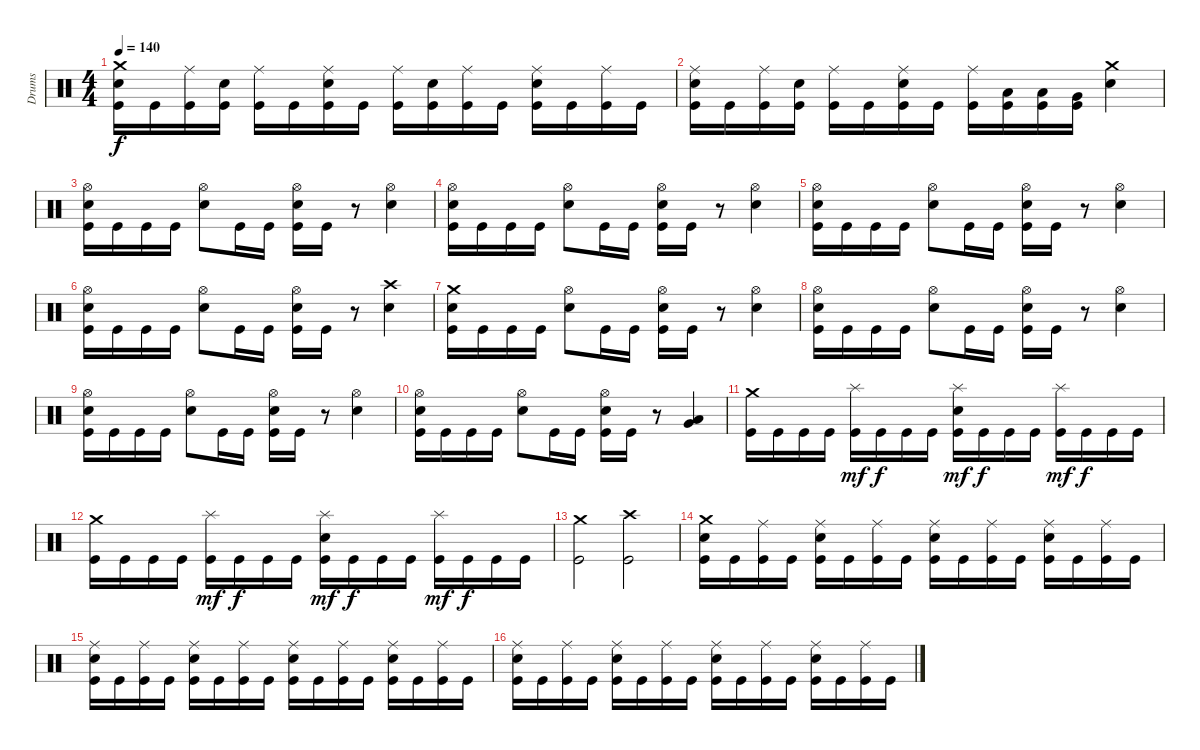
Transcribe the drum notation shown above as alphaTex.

\track ("Drums" "Drums") {instrument percussion}
\staff {score}
\articulation defaults
\ts (4 4)
\tempo 140
\clef neutral
\ks c
("Kick (hit)" "Electric Snare (hit)" "Crash medium (hit)").16{dy f} "Kick (hit)".16 ("Kick (hit)" "Ride (middle)").16 ("Kick (hit)" "Electric Snare (hit)").16 ("Kick (hit)" "Ride (middle)").16 "Kick (hit)".16 ("Kick (hit)" "Electric Snare (hit)" "Ride (middle)").16 "Kick (hit)".16 ("Kick (hit)" "Ride (middle)").16 ("Kick (hit)" "Electric Snare (hit)").16 ("Kick (hit)" "Ride (middle)").16 "Kick (hit)".16 ("Kick (hit)" "Electric Snare (hit)" "Ride (middle)").16 "Kick (hit)".16 ("Kick (hit)" "Ride (middle)").16 "Kick (hit)".16 |
("Kick (hit)" "Electric Snare (hit)" "Ride (middle)").16 "Kick (hit)".16 ("Kick (hit)" "Ride (middle)").16 ("Kick (hit)" "Electric Snare (hit)").16 ("Kick (hit)" "Ride (middle)").16 "Kick (hit)".16 ("Kick (hit)" "Electric Snare (hit)" "Ride (middle)").16 "Kick (hit)".16 ("Kick (hit)" "Ride (middle)").16 ("Kick (hit)" "Low Tom (hit)").16 ("Kick (hit)" "Low Tom (hit)").16 ("Kick (hit)" "Very Low Tom (hit)").16 ("Electric Snare (hit)" "Crash medium (hit)").4 |
("Kick (hit)" "Electric Snare (hit)" "Hi-Hat (open)").16 "Kick (hit)".16 "Kick (hit)".16 "Kick (hit)".16 ("Electric Snare (hit)" "Hi-Hat (open)").8 "Kick (hit)".16 "Kick (hit)".16 ("Kick (hit)" "Electric Snare (hit)" "Hi-Hat (open)").16 "Kick (hit)".16 r.8 ("Electric Snare (hit)" "Hi-Hat (open)").4 |
("Kick (hit)" "Electric Snare (hit)" "Hi-Hat (open)").16 "Kick (hit)".16 "Kick (hit)".16 "Kick (hit)".16 ("Electric Snare (hit)" "Hi-Hat (open)").8 "Kick (hit)".16 "Kick (hit)".16 ("Kick (hit)" "Electric Snare (hit)" "Hi-Hat (open)").16 "Kick (hit)".16 r.8 ("Electric Snare (hit)" "Hi-Hat (open)").4 |
("Kick (hit)" "Electric Snare (hit)" "Hi-Hat (open)").16 "Kick (hit)".16 "Kick (hit)".16 "Kick (hit)".16 ("Electric Snare (hit)" "Hi-Hat (open)").8 "Kick (hit)".16 "Kick (hit)".16 ("Kick (hit)" "Electric Snare (hit)" "Hi-Hat (open)").16 "Kick (hit)".16 r.8 ("Electric Snare (hit)" "Hi-Hat (open)").4 |
("Kick (hit)" "Electric Snare (hit)" "Hi-Hat (open)").16 "Kick (hit)".16 "Kick (hit)".16 "Kick (hit)".16 ("Electric Snare (hit)" "Hi-Hat (open)").8 "Kick (hit)".16 "Kick (hit)".16 ("Kick (hit)" "Electric Snare (hit)" "Hi-Hat (open)").16 "Kick (hit)".16 r.8 ("Electric Snare (hit)" "Crash high (hit)").4 |
("Kick (hit)" "Electric Snare (hit)" "Crash medium (hit)").16 "Kick (hit)".16 "Kick (hit)".16 "Kick (hit)".16 ("Electric Snare (hit)" "Hi-Hat (open)").8 "Kick (hit)".16 "Kick (hit)".16 ("Kick (hit)" "Electric Snare (hit)" "Hi-Hat (open)").16 "Kick (hit)".16 r.8 ("Electric Snare (hit)" "Hi-Hat (open)").4 |
("Kick (hit)" "Electric Snare (hit)" "Hi-Hat (open)").16 "Kick (hit)".16 "Kick (hit)".16 "Kick (hit)".16 ("Electric Snare (hit)" "Hi-Hat (open)").8 "Kick (hit)".16 "Kick (hit)".16 ("Kick (hit)" "Electric Snare (hit)" "Hi-Hat (open)").16 "Kick (hit)".16 r.8 ("Electric Snare (hit)" "Hi-Hat (open)").4 |
("Kick (hit)" "Electric Snare (hit)" "Hi-Hat (open)").16 "Kick (hit)".16 "Kick (hit)".16 "Kick (hit)".16 ("Electric Snare (hit)" "Hi-Hat (open)").8 "Kick (hit)".16 "Kick (hit)".16 ("Kick (hit)" "Electric Snare (hit)" "Hi-Hat (open)").16 "Kick (hit)".16 r.8 ("Electric Snare (hit)" "Hi-Hat (open)").4 |
("Kick (hit)" "Electric Snare (hit)" "Hi-Hat (open)").16 "Kick (hit)".16 "Kick (hit)".16 "Kick (hit)".16 ("Electric Snare (hit)" "Hi-Hat (open)").8 "Kick (hit)".16 "Kick (hit)".16 ("Kick (hit)" "Electric Snare (hit)" "Hi-Hat (open)").16 "Kick (hit)".16 r.8 ("Very Low Tom (hit)" "Low Floor Tom (hit)").4 |
("Kick (hit)" "Crash medium (hit)").16 "Kick (hit)".16 "Kick (hit)".16 "Kick (hit)".16 ("Kick (hit)" "Splash (hit)").16{dy mf} "Kick (hit)".16{dy f} "Kick (hit)".16 "Kick (hit)".16 ("Kick (hit)" "Electric Snare (hit)" "Splash (hit)").16{dy mf} "Kick (hit)".16{dy f} "Kick (hit)".16 "Kick (hit)".16 ("Kick (hit)" "Splash (hit)").16{dy mf} "Kick (hit)".16{dy f} "Kick (hit)".16 "Kick (hit)".16 |
("Kick (hit)" "Crash medium (hit)").16 "Kick (hit)".16 "Kick (hit)".16 "Kick (hit)".16 ("Kick (hit)" "Splash (hit)").16{dy mf} "Kick (hit)".16{dy f} "Kick (hit)".16 "Kick (hit)".16 ("Kick (hit)" "Electric Snare (hit)" "Splash (hit)").16{dy mf} "Kick (hit)".16{dy f} "Kick (hit)".16 "Kick (hit)".16 ("Kick (hit)" "Splash (hit)").16{dy mf} "Kick (hit)".16{dy f} "Kick (hit)".16 "Kick (hit)".16 |
("Kick (hit)" "Crash medium (hit)").2 ("Kick (hit)" "Crash high (hit)").2 |
("Kick (hit)" "Electric Snare (hit)" "Crash medium (hit)").16 "Kick (hit)".16 ("Kick (hit)" "Ride (middle)").16 "Kick (hit)".16 ("Kick (hit)" "Electric Snare (hit)" "Ride (middle)").16 "Kick (hit)".16 ("Kick (hit)" "Ride (middle)").16 "Kick (hit)".16 ("Kick (hit)" "Electric Snare (hit)" "Ride (middle)").16 "Kick (hit)".16 ("Kick (hit)" "Ride (middle)").16 "Kick (hit)".16 ("Kick (hit)" "Electric Snare (hit)" "Ride (middle)").16 "Kick (hit)".16 ("Kick (hit)" "Ride (middle)").16 "Kick (hit)".16 |
("Kick (hit)" "Electric Snare (hit)" "Ride (middle)").16 "Kick (hit)".16 ("Kick (hit)" "Ride (middle)").16 "Kick (hit)".16 ("Kick (hit)" "Electric Snare (hit)" "Ride (middle)").16 "Kick (hit)".16 ("Kick (hit)" "Ride (middle)").16 "Kick (hit)".16 ("Kick (hit)" "Electric Snare (hit)" "Ride (middle)").16 "Kick (hit)".16 ("Kick (hit)" "Ride (middle)").16 "Kick (hit)".16 ("Kick (hit)" "Electric Snare (hit)" "Ride (middle)").16 "Kick (hit)".16 ("Kick (hit)" "Ride (middle)").16 "Kick (hit)".16 |
("Kick (hit)" "Electric Snare (hit)" "Ride (middle)").16 "Kick (hit)".16 ("Kick (hit)" "Ride (middle)").16 "Kick (hit)".16 ("Kick (hit)" "Electric Snare (hit)" "Ride (middle)").16 "Kick (hit)".16 ("Kick (hit)" "Ride (middle)").16 "Kick (hit)".16 ("Kick (hit)" "Electric Snare (hit)" "Ride (middle)").16 "Kick (hit)".16 ("Kick (hit)" "Ride (middle)").16 "Kick (hit)".16 ("Kick (hit)" "Electric Snare (hit)" "Ride (middle)").16 "Kick (hit)".16 ("Kick (hit)" "Ride (middle)").16 "Kick (hit)".16
